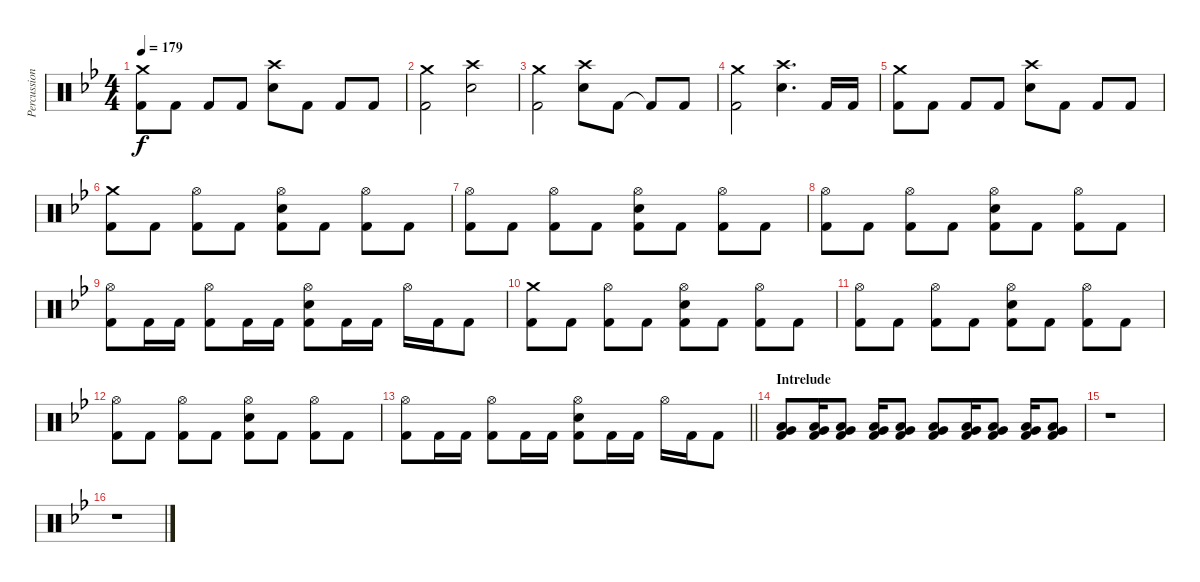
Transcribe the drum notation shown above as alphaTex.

\track ("Percussion" "Percussion") {instrument percussion}
\staff {score}
\articulation defaults
\ts (4 4)
\tempo 179
\clef neutral
\ks bb
("Crash medium (hit)" "Kick (hit) 2").8{dy f} "Kick (hit) 2".8 "Kick (hit) 2".8 "Kick (hit) 2".8 ("Crash high (hit)" "Electric Snare (hit)").8 "Kick (hit) 2".8 "Kick (hit) 2".8 "Kick (hit) 2".8 |
("Crash medium (hit)" "Kick (hit) 2").2 ("Crash high (hit)" "Electric Snare (hit)").2 |
("Crash medium (hit)" "Kick (hit) 2").2 ("Crash high (hit)" "Electric Snare (hit)").8 "Kick (hit) 2".8 "Kick (hit) 2"{t}.8 "Kick (hit) 2".8 |
("Crash medium (hit)" "Kick (hit) 2").2 ("Crash high (hit)" "Electric Snare (hit)").4{d} "Kick (hit) 2".16 "Kick (hit) 2".16 |
("Crash medium (hit)" "Kick (hit) 2").8 "Kick (hit) 2".8 "Kick (hit) 2".8 "Kick (hit) 2".8 ("Crash high (hit)" "Electric Snare (hit)").8 "Kick (hit) 2".8 "Kick (hit) 2".8 "Kick (hit) 2".8 |
("Crash medium (hit)" "Kick (hit) 2").8 "Kick (hit) 2".8 ("Hi-Hat (open)" "Kick (hit) 2").8 "Kick (hit) 2".8 ("Hi-Hat (open)" "Electric Snare (hit)" "Kick (hit) 2").8 "Kick (hit) 2".8 ("Hi-Hat (open)" "Kick (hit) 2").8 "Kick (hit) 2".8 |
("Hi-Hat (open)" "Kick (hit) 2").8 "Kick (hit) 2".8 ("Hi-Hat (open)" "Kick (hit) 2").8 "Kick (hit) 2".8 ("Hi-Hat (open)" "Electric Snare (hit)" "Kick (hit) 2").8 "Kick (hit) 2".8 ("Hi-Hat (open)" "Kick (hit) 2").8 "Kick (hit) 2".8 |
("Hi-Hat (open)" "Kick (hit) 2").8 "Kick (hit) 2".8 ("Hi-Hat (open)" "Kick (hit) 2").8 "Kick (hit) 2".8 ("Hi-Hat (open)" "Electric Snare (hit)" "Kick (hit) 2").8 "Kick (hit) 2".8 ("Hi-Hat (open)" "Kick (hit) 2").8 "Kick (hit) 2".8 |
("Hi-Hat (open)" "Kick (hit) 2").8 "Kick (hit) 2".16 "Kick (hit) 2".16 ("Hi-Hat (open)" "Kick (hit) 2").8 "Kick (hit) 2".16 "Kick (hit) 2".16 ("Hi-Hat (open)" "Electric Snare (hit)" "Kick (hit) 2").8 "Kick (hit) 2".16 "Kick (hit) 2".16 "Hi-Hat (open)".16 "Kick (hit) 2".16 "Kick (hit) 2".8 |
("Crash medium (hit)" "Kick (hit) 2").8 "Kick (hit) 2".8 ("Hi-Hat (open)" "Kick (hit) 2").8 "Kick (hit) 2".8 ("Hi-Hat (open)" "Electric Snare (hit)" "Kick (hit) 2").8 "Kick (hit) 2".8 ("Hi-Hat (open)" "Kick (hit) 2").8 "Kick (hit) 2".8 |
("Hi-Hat (open)" "Kick (hit) 2").8 "Kick (hit) 2".8 ("Hi-Hat (open)" "Kick (hit) 2").8 "Kick (hit) 2".8 ("Hi-Hat (open)" "Electric Snare (hit)" "Kick (hit) 2").8 "Kick (hit) 2".8 ("Hi-Hat (open)" "Kick (hit) 2").8 "Kick (hit) 2".8 |
("Hi-Hat (open)" "Kick (hit) 2").8 "Kick (hit) 2".8 ("Hi-Hat (open)" "Kick (hit) 2").8 "Kick (hit) 2".8 ("Hi-Hat (open)" "Electric Snare (hit)" "Kick (hit) 2").8 "Kick (hit) 2".8 ("Hi-Hat (open)" "Kick (hit) 2").8 "Kick (hit) 2".8 |
\barLineRight lightlight
("Hi-Hat (open)" "Kick (hit) 2").8 "Kick (hit) 2".16 "Kick (hit) 2".16 ("Hi-Hat (open)" "Kick (hit) 2").8 "Kick (hit) 2".16 "Kick (hit) 2".16 ("Hi-Hat (open)" "Electric Snare (hit)" "Kick (hit) 2").8 "Kick (hit) 2".16 "Kick (hit) 2".16 "Hi-Hat (open)".16 "Kick (hit) 2".16 "Kick (hit) 2".8 |
\section ("" "Intrelude")
("Very Low Tom (hit)" "Low Floor Tom (hit)" "Kick (hit) 2").8 ("Very Low Tom (hit)" "Low Floor Tom (hit)" "Kick (hit) 2").16 ("Very Low Tom (hit)" "Low Floor Tom (hit)" "Kick (hit) 2").8 ("Very Low Tom (hit)" "Low Floor Tom (hit)" "Kick (hit) 2").16 ("Very Low Tom (hit)" "Low Floor Tom (hit)" "Kick (hit) 2").8 ("Very Low Tom (hit)" "Low Floor Tom (hit)" "Kick (hit) 2").8 ("Very Low Tom (hit)" "Low Floor Tom (hit)" "Kick (hit) 2").16 ("Very Low Tom (hit)" "Low Floor Tom (hit)" "Kick (hit) 2").8 ("Very Low Tom (hit)" "Low Floor Tom (hit)" "Kick (hit) 2").16 ("Very Low Tom (hit)" "Low Floor Tom (hit)" "Kick (hit) 2").8 |
r.1 |
r.1
